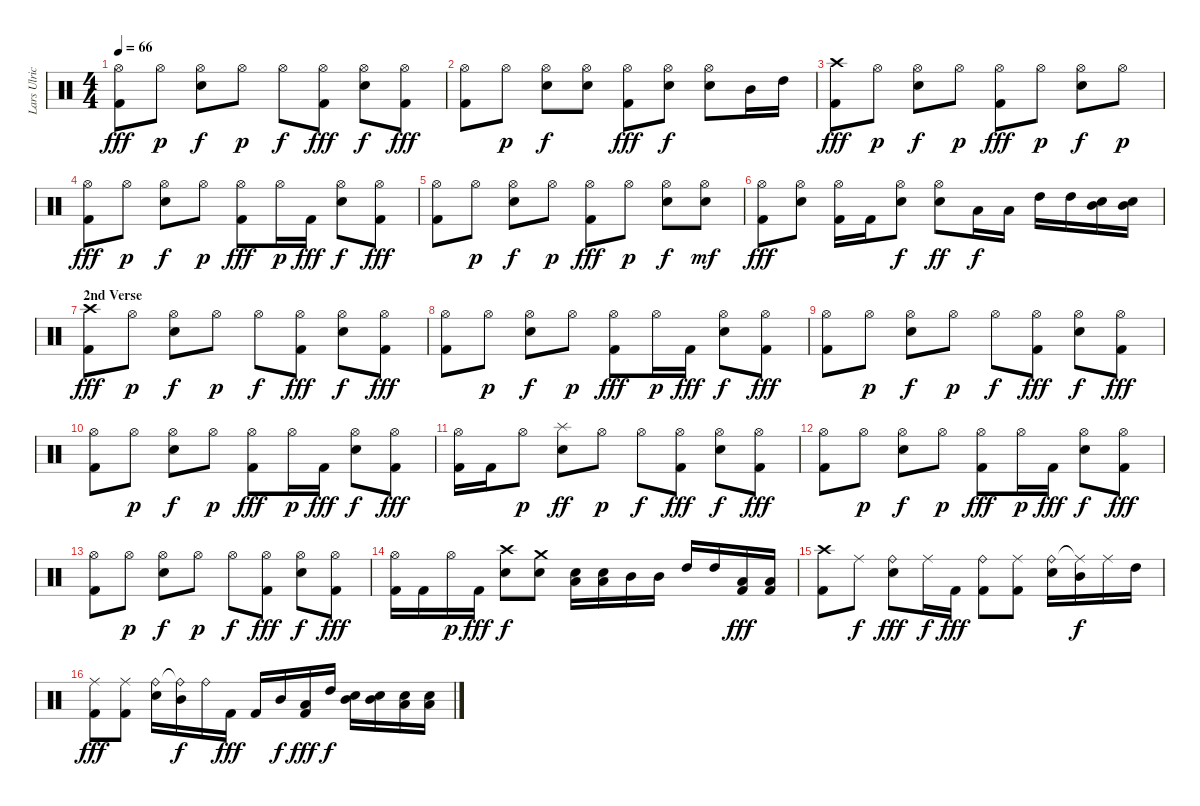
\track ("Lars Ulrich (Drums)" "Lars Ulric") {instrument percussion}
\staff {score}
\articulation defaults
\ts (4 4)
\tempo 66
\clef neutral
\ks c
("Hi-Hat (open)" "Kick (hit) 2").8{dy fff} "Hi-Hat (open)".8{dy p} ("Hi-Hat (open)" "Snare (hit) 2").8{dy f} "Hi-Hat (open)".8{dy p} "Hi-Hat (open)".8{dy f} ("Hi-Hat (open)" "Kick (hit) 2").8{dy fff} ("Hi-Hat (open)" "Snare (hit) 2").8{dy f} ("Hi-Hat (open)" "Kick (hit) 2").8{dy fff} |
("Hi-Hat (open)" "Kick (hit) 2").8 "Hi-Hat (open)".8{dy p} ("Hi-Hat (open)" "Snare (hit) 2").8{dy f} ("Hi-Hat (open)" "Snare (hit) 2").8 ("Hi-Hat (open)" "Kick (hit) 2").8{dy fff} ("Hi-Hat (open)" "Snare (hit) 2").8{dy f} ("Hi-Hat (open)" "Snare (hit) 2").8 "Mid Tom (hit)".16 "High Tom (hit)".16 |
("Kick (hit) 2" "Crash high (hit)").8{dy fff} "Hi-Hat (open)".8{dy p} ("Hi-Hat (open)" "Snare (hit) 2").8{dy f} "Hi-Hat (open)".8{dy p} ("Hi-Hat (open)" "Kick (hit) 2").8{dy fff} "Hi-Hat (open)".8{dy p} ("Hi-Hat (open)" "Snare (hit) 2").8{dy f} "Hi-Hat (open)".8{dy p} |
("Hi-Hat (open)" "Kick (hit) 2").8{dy fff} "Hi-Hat (open)".8{dy p} ("Hi-Hat (open)" "Snare (hit) 2").8{dy f} "Hi-Hat (open)".8{dy p} ("Hi-Hat (open)" "Kick (hit) 2").8{dy fff} "Hi-Hat (open)".16{dy p} "Kick (hit) 2".16{dy fff} ("Hi-Hat (open)" "Snare (hit) 2").8{dy f} ("Hi-Hat (open)" "Kick (hit) 2").8{dy fff} |
("Hi-Hat (open)" "Kick (hit) 2").8 "Hi-Hat (open)".8{dy p} ("Hi-Hat (open)" "Snare (hit) 2").8{dy f} "Hi-Hat (open)".8{dy p} ("Hi-Hat (open)" "Kick (hit) 2").8{dy fff} "Hi-Hat (open)".8{dy p} ("Hi-Hat (open)" "Snare (hit) 2").8{dy f} ("Hi-Hat (open)" "Snare (hit) 2").8{dy mf} |
("Hi-Hat (open)" "Kick (hit) 2").8{dy fff} ("Hi-Hat (open)" "Snare (hit) 2").8 ("Hi-Hat (open)" "Kick (hit) 2").16 "Kick (hit) 2".16 ("Hi-Hat (open)" "Snare (hit) 2").8{dy f} ("Hi-Hat (open)" "Snare (hit) 2").8{dy ff} "Low Tom (hit)".16{dy f} "Low Tom (hit)".16 "High Tom (hit)".16 "High Tom (hit)".16 ("Snare (hit) 2" "Mid Tom (hit)").16 ("Snare (hit) 2" "Mid Tom (hit)").16 |
\section ("" "2nd Verse")
("Kick (hit) 2" "Crash high (hit)").8{dy fff} "Hi-Hat (open)".8{dy p} ("Hi-Hat (open)" "Snare (hit) 2").8{dy f} "Hi-Hat (open)".8{dy p} "Hi-Hat (open)".8{dy f} ("Hi-Hat (open)" "Kick (hit) 2").8{dy fff} ("Hi-Hat (open)" "Snare (hit) 2").8{dy f} ("Hi-Hat (open)" "Kick (hit) 2").8{dy fff} |
("Hi-Hat (open)" "Kick (hit) 2").8 "Hi-Hat (open)".8{dy p} ("Hi-Hat (open)" "Snare (hit) 2").8{dy f} "Hi-Hat (open)".8{dy p} ("Hi-Hat (open)" "Kick (hit) 2").8{dy fff} "Hi-Hat (open)".16{dy p} "Kick (hit) 2".16{dy fff} ("Hi-Hat (open)" "Snare (hit) 2").8{dy f} ("Hi-Hat (open)" "Kick (hit) 2").8{dy fff} |
("Hi-Hat (open)" "Kick (hit) 2").8 "Hi-Hat (open)".8{dy p} ("Hi-Hat (open)" "Snare (hit) 2").8{dy f} "Hi-Hat (open)".8{dy p} "Hi-Hat (open)".8{dy f} ("Hi-Hat (open)" "Kick (hit) 2").8{dy fff} ("Hi-Hat (open)" "Snare (hit) 2").8{dy f} ("Hi-Hat (open)" "Kick (hit) 2").8{dy fff} |
("Hi-Hat (open)" "Kick (hit) 2").8 "Hi-Hat (open)".8{dy p} ("Hi-Hat (open)" "Snare (hit) 2").8{dy f} "Hi-Hat (open)".8{dy p} ("Hi-Hat (open)" "Kick (hit) 2").8{dy fff} "Hi-Hat (open)".16{dy p} "Kick (hit) 2".16{dy fff} ("Hi-Hat (open)" "Snare (hit) 2").8{dy f} ("Hi-Hat (open)" "Kick (hit) 2").8{dy fff} |
("Hi-Hat (open)" "Kick (hit) 2").16 "Kick (hit) 2".16 "Hi-Hat (open)".8{dy p} ("Snare (hit) 2" "Splash (hit)").8{dy ff} "Hi-Hat (open)".8{dy p} "Hi-Hat (open)".8{dy f} ("Hi-Hat (open)" "Kick (hit) 2").8{dy fff} ("Hi-Hat (open)" "Snare (hit) 2").8{dy f} ("Hi-Hat (open)" "Kick (hit) 2").8{dy fff} |
("Hi-Hat (open)" "Kick (hit) 2").8 "Hi-Hat (open)".8{dy p} ("Hi-Hat (open)" "Snare (hit) 2").8{dy f} "Hi-Hat (open)".8{dy p} ("Hi-Hat (open)" "Kick (hit) 2").8{dy fff} "Hi-Hat (open)".16{dy p} "Kick (hit) 2".16{dy fff} ("Hi-Hat (open)" "Snare (hit) 2").8{dy f} ("Hi-Hat (open)" "Kick (hit) 2").8{dy fff} |
("Hi-Hat (open)" "Kick (hit) 2").8 "Hi-Hat (open)".8{dy p} ("Hi-Hat (open)" "Snare (hit) 2").8{dy f} "Hi-Hat (open)".8{dy p} "Hi-Hat (open)".8{dy f} ("Hi-Hat (open)" "Kick (hit) 2").8{dy fff} ("Hi-Hat (open)" "Snare (hit) 2").8{dy f} ("Hi-Hat (open)" "Kick (hit) 2").8{dy fff} |
("Hi-Hat (open)" "Kick (hit) 2").16 "Kick (hit) 2".16 "Hi-Hat (open)".16{dy p} "Kick (hit) 2".16{dy fff} ("Snare (hit) 2" "Crash high (hit)").8{dy f} ("Snare (hit) 2" "Crash medium (hit)").8 ("Snare (hit) 2" "Low Tom (hit)").16 ("Snare (hit) 2" "Low Tom (hit)").16 "Mid Tom (hit)".16 "Mid Tom (hit)".16 "High Tom (hit)".16 "High Tom (hit)".16 ("Kick (hit) 2" "Low Tom (hit)").16{dy fff} ("Kick (hit) 2" "Low Tom (hit)").16 |
("Kick (hit) 2" "Crash high (hit)").8 "Ride (middle)".8{dy f} ("Ride (bell)" "Snare (hit) 2").8{dy fff} "Ride (middle)".16{dy f} "Kick (hit) 2".16{dy fff} ("Ride (bell)" "Kick (hit) 2").8 ("Ride (middle)" "Kick (hit) 2").8 ("Ride (bell)" "Snare (hit) 2").16 ("Ride (middle)"{t} "Mid Tom (hit)").16{dy f} "Ride (middle)".16 "High Tom (hit)".16 |
("Ride (middle)" "Kick (hit) 2").8{dy fff} ("Ride (middle)" "Kick (hit) 2").8 ("Ride (bell)" "Snare (hit) 2").16 ("Ride (bell)"{t} "Mid Tom (hit)").16{dy f} "Ride (bell)".16 "Kick (hit) 2".16{dy fff} "Kick (hit) 2".16 "Mid Tom (hit)".16{dy f} ("Kick (hit) 2" "Low Tom (hit)").16{dy fff} "High Tom (hit)".16{dy f} ("Snare (hit) 2" "Mid Tom (hit)").16 ("Snare (hit) 2" "Mid Tom (hit)").16 ("Snare (hit) 2" "Low Tom (hit)").16 ("Snare (hit) 2" "Low Tom (hit)").16
